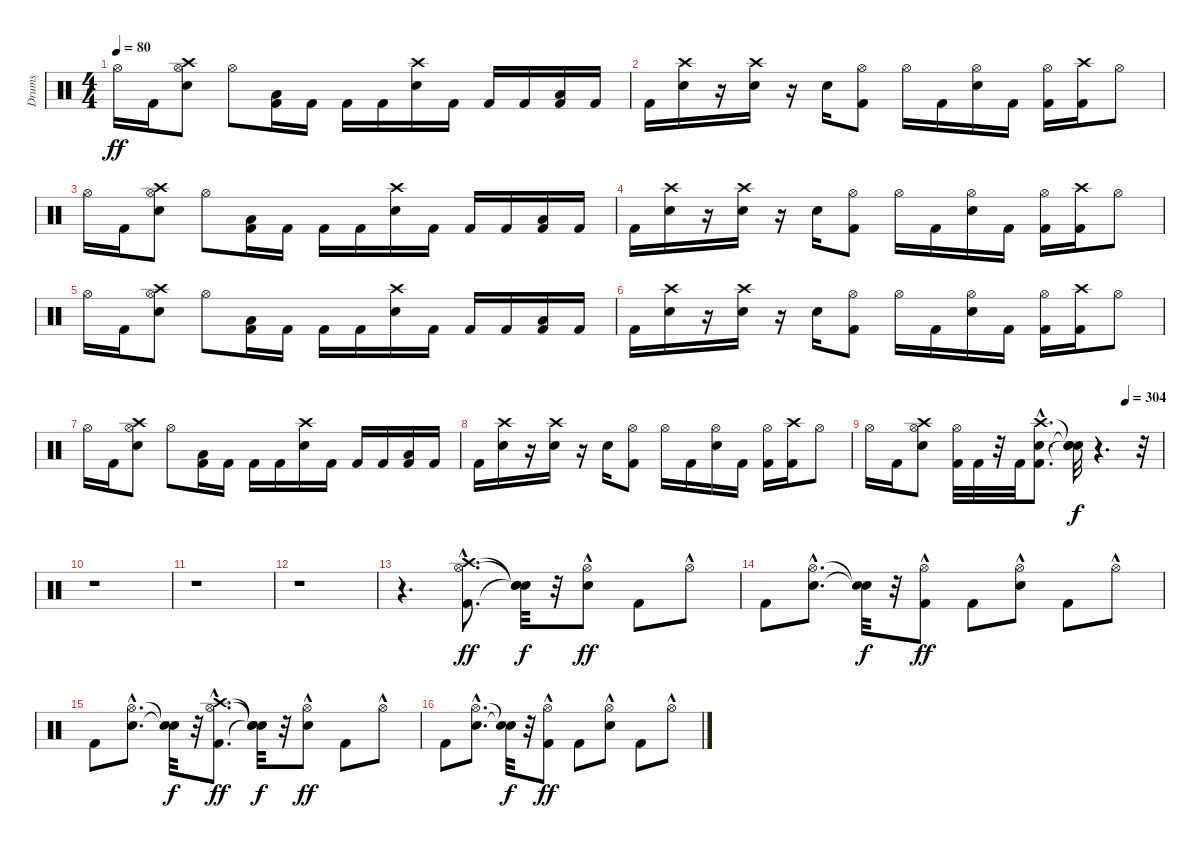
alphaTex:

\track ("Drums" "Drums") {instrument percussion}
\staff {score}
\articulation defaults
\ts (4 4)
\tempo 80
\clef neutral
\ks c "Hi-Hat (open)".16{dy ff} "Kick (hit) 2".16
("Snare (hit) 2" "Hi-Hat (open)" "Crash high (hit)").8 "Hi-Hat (open)".8 ("Kick (hit) 2" "Low Floor Tom (hit)").16 "Kick (hit) 2".16 "Kick (hit) 2".16 "Kick (hit) 2".16 ("Snare (hit) 2" "Crash high (hit)").16 "Kick (hit) 2".16 "Kick (hit) 2".16 "Kick (hit) 2".16 ("Kick (hit) 2" "Low Floor Tom (hit)").16 "Kick (hit) 2".16 |
"Kick (hit) 2".16 ("Snare (hit) 2" "Crash high (hit)").16 r.16 ("Snare (hit) 2" "Crash high (hit)").16 r.16 "Snare (hit) 2".16 ("Kick (hit) 2" "Hi-Hat (open)").8 "Hi-Hat (open)".16 "Kick (hit) 2".16 ("Snare (hit) 2" "Hi-Hat (open)").16 "Kick (hit) 2".16 ("Kick (hit) 2" "Hi-Hat (open)").16 ("Kick (hit) 2" "Crash high (hit)").16 "Hi-Hat (open)".8 |
"Hi-Hat (open)".16 "Kick (hit) 2".16 ("Snare (hit) 2" "Hi-Hat (open)" "Crash high (hit)").8 "Hi-Hat (open)".8 ("Kick (hit) 2" "Low Floor Tom (hit)").16 "Kick (hit) 2".16 "Kick (hit) 2".16 "Kick (hit) 2".16 ("Snare (hit) 2" "Crash high (hit)").16 "Kick (hit) 2".16 "Kick (hit) 2".16 "Kick (hit) 2".16 ("Kick (hit) 2" "Low Floor Tom (hit)").16 "Kick (hit) 2".16 |
"Kick (hit) 2".16 ("Snare (hit) 2" "Crash high (hit)").16 r.16 ("Snare (hit) 2" "Crash high (hit)").16 r.16 "Snare (hit) 2".16 ("Kick (hit) 2" "Hi-Hat (open)").8 "Hi-Hat (open)".16 "Kick (hit) 2".16 ("Snare (hit) 2" "Hi-Hat (open)").16 "Kick (hit) 2".16 ("Kick (hit) 2" "Hi-Hat (open)").16 ("Kick (hit) 2" "Crash high (hit)").16 "Hi-Hat (open)".8 |
"Hi-Hat (open)".16 "Kick (hit) 2".16 ("Snare (hit) 2" "Hi-Hat (open)" "Crash high (hit)").8 "Hi-Hat (open)".8 ("Kick (hit) 2" "Low Floor Tom (hit)").16 "Kick (hit) 2".16 "Kick (hit) 2".16 "Kick (hit) 2".16 ("Snare (hit) 2" "Crash high (hit)").16 "Kick (hit) 2".16 "Kick (hit) 2".16 "Kick (hit) 2".16 ("Kick (hit) 2" "Low Floor Tom (hit)").16 "Kick (hit) 2".16 |
"Kick (hit) 2".16 ("Snare (hit) 2" "Crash high (hit)").16 r.16 ("Snare (hit) 2" "Crash high (hit)").16 r.16 "Snare (hit) 2".16 ("Kick (hit) 2" "Hi-Hat (open)").8 "Hi-Hat (open)".16 "Kick (hit) 2".16 ("Snare (hit) 2" "Hi-Hat (open)").16 "Kick (hit) 2".16 ("Kick (hit) 2" "Hi-Hat (open)").16 ("Kick (hit) 2" "Crash high (hit)").16 "Hi-Hat (open)".8 |
"Hi-Hat (open)".16 "Kick (hit) 2".16 ("Snare (hit) 2" "Hi-Hat (open)" "Crash high (hit)").8 "Hi-Hat (open)".8 ("Kick (hit) 2" "Low Floor Tom (hit)").16 "Kick (hit) 2".16 "Kick (hit) 2".16 "Kick (hit) 2".16 ("Snare (hit) 2" "Crash high (hit)").16 "Kick (hit) 2".16 "Kick (hit) 2".16 "Kick (hit) 2".16 ("Kick (hit) 2" "Low Floor Tom (hit)").16 "Kick (hit) 2".16 |
"Kick (hit) 2".16 ("Snare (hit) 2" "Crash high (hit)").16 r.16 ("Snare (hit) 2" "Crash high (hit)").16 r.16 "Snare (hit) 2".16 ("Kick (hit) 2" "Hi-Hat (open)").8 "Hi-Hat (open)".16 "Kick (hit) 2".16 ("Snare (hit) 2" "Hi-Hat (open)").16 "Kick (hit) 2".16 ("Kick (hit) 2" "Hi-Hat (open)").16 ("Kick (hit) 2" "Crash high (hit)").16 "Hi-Hat (open)".8 |
\tempo (304 0.875)
"Hi-Hat (open)".16 "Kick (hit) 2".16 ("Snare (hit) 2" "Hi-Hat (open)" "Crash high (hit)").8 ("Kick (hit) 2" "Hi-Hat (open)").32 "Kick (hit) 2".32 r.32 "Kick (hit) 2".32 ("Kick (hit) 2"{hac} "Snare (hit) 2"{hac} "Crash high (hit)"{hac}).8{d} ("Snare (hit)"{t} "Snare (hit)"{t} "Snare (hit)"{t}).32{dy f} r.4{d} r.32 |
r.1 |
r.1 |
r.1 |
r.4{d} ("Kick (hit) 2"{hac} "Hi-Hat (open)"{hac} "Crash high (hit)"{hac}).8{d dy ff} ("Snare (hit)"{t} "Snare (hit)"{t} "Snare (hit)"{t}).32{dy f} r.32 ("Snare (hit) 2" "Hi-Hat (open)"{hac}).8{dy ff} "Kick (hit) 2".8 "Hi-Hat (open)"{hac}.8 |
"Kick (hit) 2".8 ("Snare (hit) 2"{hac} "Hi-Hat (open)"{hac}).8{d} ("Snare (hit)"{t} "Snare (hit)"{t}).32{dy f} r.32 ("Kick (hit) 2" "Hi-Hat (open)"{hac}).8{dy ff} "Kick (hit) 2".8 ("Snare (hit) 2" "Hi-Hat (open)"{hac}).8 "Kick (hit) 2".8 "Hi-Hat (open)"{hac}.8 |
"Kick (hit) 2".8 ("Snare (hit) 2"{hac} "Hi-Hat (open)"{hac}).8{d} ("Snare (hit)"{t} "Snare (hit)"{t}).32{dy f} r.32 ("Kick (hit) 2"{hac} "Hi-Hat (open)"{hac} "Crash high (hit)"{hac}).8{d dy ff} ("Snare (hit)"{t} "Snare (hit)"{t} "Snare (hit)"{t}).32{dy f} r.32 ("Snare (hit) 2" "Hi-Hat (open)"{hac}).8{dy ff} "Kick (hit) 2".8 "Hi-Hat (open)"{hac}.8 |
"Kick (hit) 2".8 ("Snare (hit) 2"{hac} "Hi-Hat (open)"{hac}).8{d} ("Snare (hit)"{t} "Snare (hit)"{t}).32{dy f} r.32 ("Kick (hit) 2" "Hi-Hat (open)"{hac}).8{dy ff} "Kick (hit) 2".8 ("Snare (hit) 2" "Hi-Hat (open)"{hac}).8 "Kick (hit) 2".8 "Hi-Hat (open)"{hac}.8
